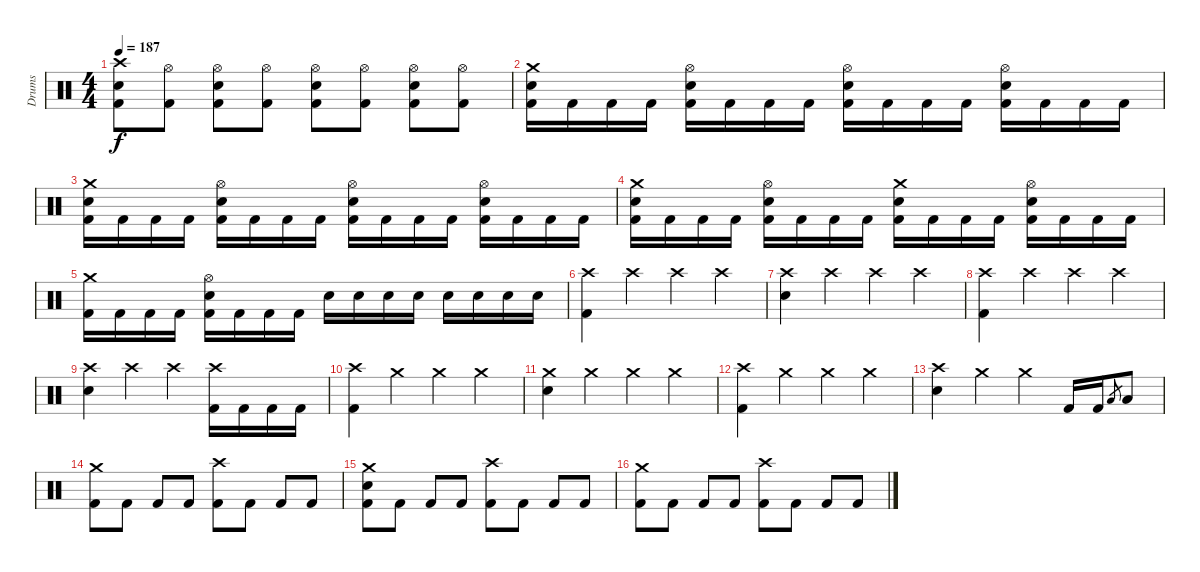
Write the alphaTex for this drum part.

\track ("Drums" "Drums") {instrument percussion}
\staff {score}
\articulation defaults
\ts (4 4)
\tempo 187
\clef neutral
\ks c
("Kick (hit) 2" "Electric Snare (hit)" "Crash high (hit)").8{dy f} ("Kick (hit) 2" "Hi-Hat (open)").8 ("Kick (hit) 2" "Electric Snare (hit)" "Hi-Hat (open)").8 ("Kick (hit) 2" "Hi-Hat (open)").8 ("Kick (hit) 2" "Electric Snare (hit)" "Hi-Hat (open)").8 ("Kick (hit) 2" "Hi-Hat (open)").8 ("Kick (hit) 2" "Electric Snare (hit)" "Hi-Hat (open)").8 ("Kick (hit) 2" "Hi-Hat (open)").8 |
("Kick (hit) 2" "Electric Snare (hit)" "Crash medium (hit)").16 "Kick (hit) 2".16 "Kick (hit) 2".16 "Kick (hit) 2".16 ("Kick (hit) 2" "Electric Snare (hit)" "Hi-Hat (open)").16 "Kick (hit) 2".16 "Kick (hit) 2".16 "Kick (hit) 2".16 ("Kick (hit) 2" "Electric Snare (hit)" "Hi-Hat (open)").16 "Kick (hit) 2".16 "Kick (hit) 2".16 "Kick (hit) 2".16 ("Kick (hit) 2" "Electric Snare (hit)" "Hi-Hat (open)").16 "Kick (hit) 2".16 "Kick (hit) 2".16 "Kick (hit) 2".16 |
("Kick (hit) 2" "Electric Snare (hit)" "Crash medium (hit)").16 "Kick (hit) 2".16 "Kick (hit) 2".16 "Kick (hit) 2".16 ("Kick (hit) 2" "Electric Snare (hit)" "Hi-Hat (open)").16 "Kick (hit) 2".16 "Kick (hit) 2".16 "Kick (hit) 2".16 ("Kick (hit) 2" "Electric Snare (hit)" "Hi-Hat (open)").16 "Kick (hit) 2".16 "Kick (hit) 2".16 "Kick (hit) 2".16 ("Kick (hit) 2" "Electric Snare (hit)" "Hi-Hat (open)").16 "Kick (hit) 2".16 "Kick (hit) 2".16 "Kick (hit) 2".16 |
("Kick (hit) 2" "Electric Snare (hit)" "Crash medium (hit)").16 "Kick (hit) 2".16 "Kick (hit) 2".16 "Kick (hit) 2".16 ("Kick (hit) 2" "Electric Snare (hit)" "Hi-Hat (open)").16 "Kick (hit) 2".16 "Kick (hit) 2".16 "Kick (hit) 2".16 ("Kick (hit) 2" "Electric Snare (hit)" "Crash medium (hit)").16 "Kick (hit) 2".16 "Kick (hit) 2".16 "Kick (hit) 2".16 ("Kick (hit) 2" "Electric Snare (hit)" "Hi-Hat (open)").16 "Kick (hit) 2".16 "Kick (hit) 2".16 "Kick (hit) 2".16 |
("Kick (hit) 2" "Crash medium (hit)").16 "Kick (hit) 2".16 "Kick (hit) 2".16 "Kick (hit) 2".16 ("Kick (hit) 2" "Electric Snare (hit)" "Hi-Hat (open)").16 "Kick (hit) 2".16 "Kick (hit) 2".16 "Kick (hit) 2".16 "Electric Snare (hit)".16 "Electric Snare (hit)".16 "Electric Snare (hit)".16 "Electric Snare (hit)".16 "Electric Snare (hit)".16 "Electric Snare (hit)".16 "Electric Snare (hit)".16 "Electric Snare (hit)".16 |
("Crash high (hit)" "Kick (hit) 2").4 "Crash high (hit)".4 "Crash high (hit)".4 "Crash high (hit)".4 |
("Crash high (hit)" "Electric Snare (hit)").4 "Crash high (hit)".4 "Crash high (hit)".4 "Crash high (hit)".4 |
("Crash high (hit)" "Kick (hit) 2").4 "Crash high (hit)".4 "Crash high (hit)".4 "Crash high (hit)".4 |
("Crash high (hit)" "Electric Snare (hit)").4 "Crash high (hit)".4 "Crash high (hit)".4 ("Crash high (hit)" "Kick (hit) 2").16 "Kick (hit) 2".16 "Kick (hit) 2".16 "Kick (hit) 2".16 |
("Crash high (hit)" "Kick (hit) 2").4 "Crash medium (hit)".4 "Crash medium (hit)".4 "Crash medium (hit)".4 |
("Crash medium (hit)" "Electric Snare (hit)").4 "Crash medium (hit)".4 "Crash medium (hit)".4 "Crash medium (hit)".4 |
("Crash high (hit)" "Kick (hit) 2").4 "Crash medium (hit)".4 "Crash medium (hit)".4 "Crash medium (hit)".4 |
("Crash high (hit)" "Electric Snare (hit)").4 "Crash medium (hit)".4 "Crash medium (hit)".4 "Kick (hit) 2".16 "Kick (hit) 2".16 "Low Floor Tom (hit)".8{gr} "Low Floor Tom (hit)".8 |
("Crash medium (hit)" "Kick (hit) 2").8 "Kick (hit) 2".8 "Kick (hit) 2".8 "Kick (hit) 2".8 ("Crash high (hit)" "Kick (hit) 2").8 "Kick (hit) 2".8 "Kick (hit) 2".8 "Kick (hit) 2".8 |
("Crash medium (hit)" "Electric Snare (hit)" "Kick (hit) 2").8 "Kick (hit) 2".8 "Kick (hit) 2".8 "Kick (hit) 2".8 ("Crash high (hit)" "Kick (hit) 2").8 "Kick (hit) 2".8 "Kick (hit) 2".8 "Kick (hit) 2".8 |
("Crash medium (hit)" "Kick (hit) 2").8 "Kick (hit) 2".8 "Kick (hit) 2".8 "Kick (hit) 2".8 ("Crash high (hit)" "Kick (hit) 2").8 "Kick (hit) 2".8 "Kick (hit) 2".8 "Kick (hit) 2".8
